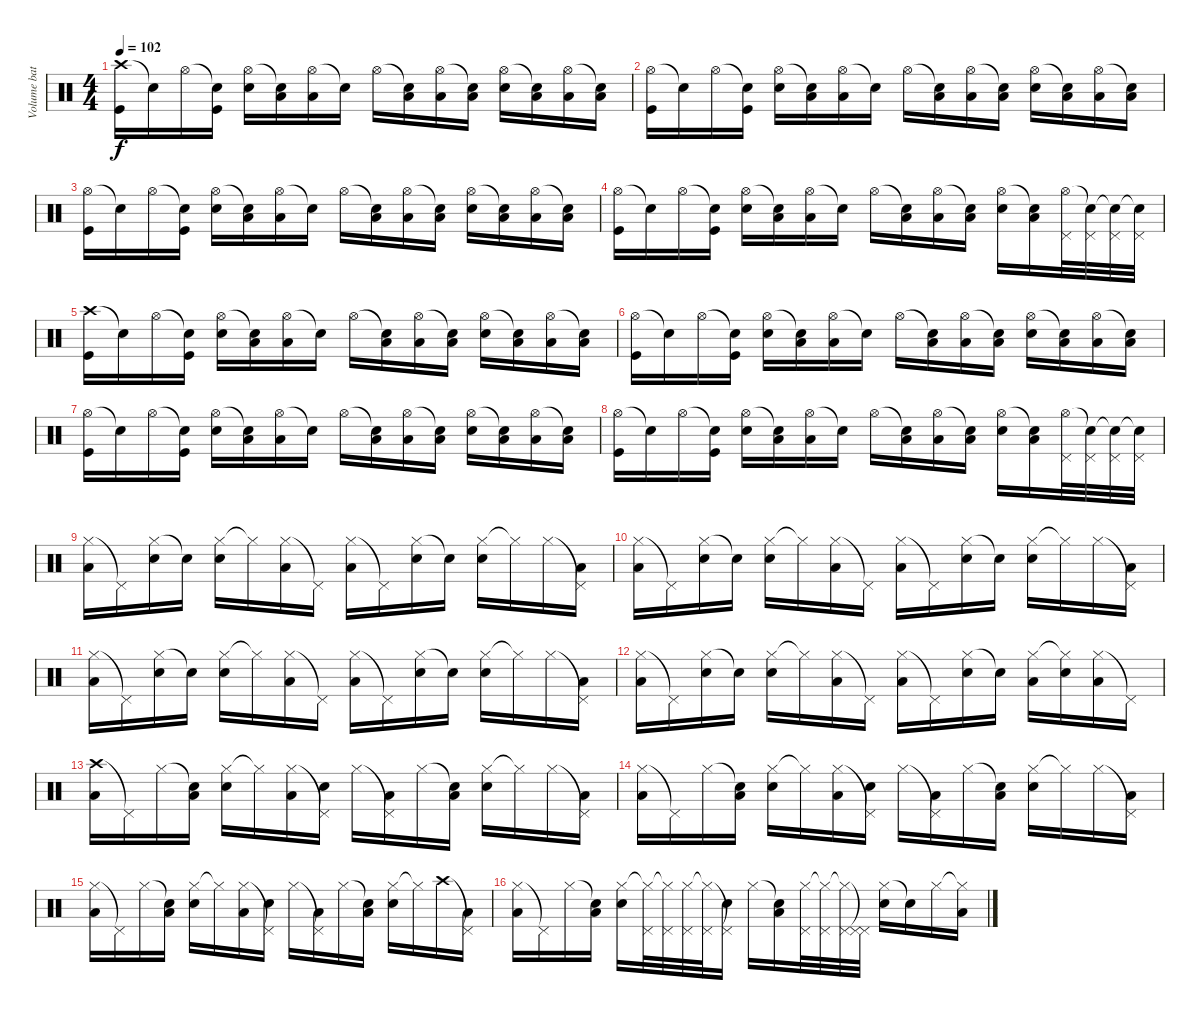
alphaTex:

\track ("Volume batera " "Volume bat") {instrument percussion}
\staff {score}
\articulation defaults
\ts (4 4)
\tempo 102
\clef neutral
\ks c
("Crash high (hit)" "Kick (hit)").16{dy f} "Snare (hit)"{t}.16 "Hi-Hat (open)".16 ("Snare (hit)"{t} "Kick (hit)").16 ("Hi-Hat (open)" "Snare (hit) 2").16 ("Snare (hit)"{t} "Low Tom (hit)").16 ("Hi-Hat (open)" "Low Tom (hit)").16 "Snare (hit)"{t}.16 "Hi-Hat (open)".16 ("Snare (hit)"{t} "Low Tom (hit)").16 ("Hi-Hat (open)" "Low Tom (hit)").16 ("Snare (hit)"{t} "Low Tom (hit)").16 ("Hi-Hat (open)" "Snare (hit) 2").16 ("Snare (hit)"{t} "Low Tom (hit)").16 ("Hi-Hat (open)" "Low Tom (hit)").16 ("Snare (hit)"{t} "Low Tom (hit)").16 |
("Hi-Hat (open)" "Kick (hit)").16 "Snare (hit)"{t}.16 "Hi-Hat (open)".16 ("Snare (hit)"{t} "Kick (hit)").16 ("Hi-Hat (open)" "Snare (hit) 2").16 ("Snare (hit)"{t} "Low Tom (hit)").16 ("Hi-Hat (open)" "Low Tom (hit)").16 "Snare (hit)"{t}.16 "Hi-Hat (open)".16 ("Snare (hit)"{t} "Low Tom (hit)").16 ("Hi-Hat (open)" "Low Tom (hit)").16 ("Snare (hit)"{t} "Low Tom (hit)").16 ("Hi-Hat (open)" "Snare (hit) 2").16 ("Snare (hit)"{t} "Low Tom (hit)").16 ("Hi-Hat (open)" "Low Tom (hit)").16 ("Snare (hit)"{t} "Low Tom (hit)").16 |
("Hi-Hat (open)" "Kick (hit)").16 "Snare (hit)"{t}.16 "Hi-Hat (open)".16 ("Snare (hit)"{t} "Kick (hit)").16 ("Hi-Hat (open)" "Snare (hit) 2").16 ("Snare (hit)"{t} "Low Tom (hit)").16 ("Hi-Hat (open)" "Low Tom (hit)").16 "Snare (hit)"{t}.16 "Hi-Hat (open)".16 ("Snare (hit)"{t} "Low Tom (hit)").16 ("Hi-Hat (open)" "Low Tom (hit)").16 ("Snare (hit)"{t} "Low Tom (hit)").16 ("Hi-Hat (open)" "Snare (hit) 2").16 ("Snare (hit)"{t} "Low Tom (hit)").16 ("Hi-Hat (open)" "Low Tom (hit)").16 ("Snare (hit)"{t} "Low Tom (hit)").16 |
("Hi-Hat (open)" "Kick (hit)").16 "Snare (hit)"{t}.16 "Hi-Hat (open)".16 ("Snare (hit)"{t} "Kick (hit)").16 ("Hi-Hat (open)" "Snare (hit) 2").16 ("Snare (hit)"{t} "Low Tom (hit)").16 ("Hi-Hat (open)" "Low Tom (hit)").16 "Snare (hit)"{t}.16 "Hi-Hat (open)".16 ("Snare (hit)"{t} "Low Tom (hit)").16 ("Hi-Hat (open)" "Low Tom (hit)").16 ("Snare (hit)"{t} "Low Tom (hit)").16 ("Hi-Hat (open)" "Snare (hit) 2").16 ("Snare (hit)"{t} "Low Tom (hit)").16 ("Hi-Hat (open)" "Pedal Hi-Hat (hit)").32 ("Snare (hit)"{t} "Pedal Hi-Hat (hit)").32 ("Snare (hit)"{t} "Pedal Hi-Hat (hit)").32 ("Snare (hit)"{t} "Pedal Hi-Hat (hit)").32 |
("Crash high (hit)" "Kick (hit)").16 "Snare (hit)"{t}.16 "Hi-Hat (open)".16 ("Snare (hit)"{t} "Kick (hit)").16 ("Hi-Hat (open)" "Snare (hit) 2").16 ("Snare (hit)"{t} "Low Tom (hit)").16 ("Hi-Hat (open)" "Low Tom (hit)").16 "Snare (hit)"{t}.16 "Hi-Hat (open)".16 ("Snare (hit)"{t} "Low Tom (hit)").16 ("Hi-Hat (open)" "Low Tom (hit)").16 ("Snare (hit)"{t} "Low Tom (hit)").16 ("Hi-Hat (open)" "Snare (hit) 2").16 ("Snare (hit)"{t} "Low Tom (hit)").16 ("Hi-Hat (open)" "Low Tom (hit)").16 ("Snare (hit)"{t} "Low Tom (hit)").16 |
("Hi-Hat (open)" "Kick (hit)").16 "Snare (hit)"{t}.16 "Hi-Hat (open)".16 ("Snare (hit)"{t} "Kick (hit)").16 ("Hi-Hat (open)" "Snare (hit) 2").16 ("Snare (hit)"{t} "Low Tom (hit)").16 ("Hi-Hat (open)" "Low Tom (hit)").16 "Snare (hit)"{t}.16 "Hi-Hat (open)".16 ("Snare (hit)"{t} "Low Tom (hit)").16 ("Hi-Hat (open)" "Low Tom (hit)").16 ("Snare (hit)"{t} "Low Tom (hit)").16 ("Hi-Hat (open)" "Snare (hit) 2").16 ("Snare (hit)"{t} "Low Tom (hit)").16 ("Hi-Hat (open)" "Low Tom (hit)").16 ("Snare (hit)"{t} "Low Tom (hit)").16 |
("Hi-Hat (open)" "Kick (hit)").16 "Snare (hit)"{t}.16 "Hi-Hat (open)".16 ("Snare (hit)"{t} "Kick (hit)").16 ("Hi-Hat (open)" "Snare (hit) 2").16 ("Snare (hit)"{t} "Low Tom (hit)").16 ("Hi-Hat (open)" "Low Tom (hit)").16 "Snare (hit)"{t}.16 "Hi-Hat (open)".16 ("Snare (hit)"{t} "Low Tom (hit)").16 ("Hi-Hat (open)" "Low Tom (hit)").16 ("Snare (hit)"{t} "Low Tom (hit)").16 ("Hi-Hat (open)" "Snare (hit) 2").16 ("Snare (hit)"{t} "Low Tom (hit)").16 ("Hi-Hat (open)" "Low Tom (hit)").16 ("Snare (hit)"{t} "Low Tom (hit)").16 |
("Hi-Hat (open)" "Kick (hit)").16 "Snare (hit)"{t}.16 "Hi-Hat (open)".16 ("Snare (hit)"{t} "Kick (hit)").16 ("Hi-Hat (open)" "Snare (hit) 2").16 ("Snare (hit)"{t} "Low Tom (hit)").16 ("Hi-Hat (open)" "Low Tom (hit)").16 "Snare (hit)"{t}.16 "Hi-Hat (open)".16 ("Snare (hit)"{t} "Low Tom (hit)").16 ("Hi-Hat (open)" "Low Tom (hit)").16 ("Snare (hit)"{t} "Low Tom (hit)").16 ("Hi-Hat (open)" "Snare (hit) 2").16 ("Snare (hit)"{t} "Low Tom (hit)").16 ("Hi-Hat (open)" "Pedal Hi-Hat (hit)").32 ("Snare (hit)"{t} "Pedal Hi-Hat (hit)").32 ("Snare (hit)"{t} "Pedal Hi-Hat (hit)").32 ("Snare (hit)"{t} "Pedal Hi-Hat (hit)").32 |
("Hi-Hat (closed)" "Low Tom (hit)").16 "Pedal Hi-Hat (hit)"{t}.16 ("Hi-Hat (closed)" "Snare (hit) 2").16 "Snare (hit)"{t}.16 ("Hi-Hat (closed)" "Snare (hit) 2").16 "Hi-Hat (closed)"{t}.16 ("Hi-Hat (closed)" "Low Tom (hit)").16 "Pedal Hi-Hat (hit)"{t}.16 ("Hi-Hat (closed)" "Low Tom (hit)").16 "Pedal Hi-Hat (hit)"{t}.16 ("Hi-Hat (closed)" "Snare (hit) 2").16 "Snare (hit)"{t}.16 ("Hi-Hat (closed)" "Snare (hit) 2").16 "Hi-Hat (closed)"{t}.16 "Hi-Hat (closed)".16 ("Pedal Hi-Hat (hit)"{t} "Low Tom (hit)").16 |
("Hi-Hat (closed)" "Low Tom (hit)").16 "Pedal Hi-Hat (hit)"{t}.16 ("Hi-Hat (closed)" "Snare (hit) 2").16 "Snare (hit)"{t}.16 ("Hi-Hat (closed)" "Snare (hit) 2").16 "Hi-Hat (closed)"{t}.16 ("Hi-Hat (closed)" "Low Tom (hit)").16 "Pedal Hi-Hat (hit)"{t}.16 ("Hi-Hat (closed)" "Low Tom (hit)").16 "Pedal Hi-Hat (hit)"{t}.16 ("Hi-Hat (closed)" "Snare (hit) 2").16 "Snare (hit)"{t}.16 ("Hi-Hat (closed)" "Snare (hit) 2").16 "Hi-Hat (closed)"{t}.16 "Hi-Hat (closed)".16 ("Pedal Hi-Hat (hit)"{t} "Low Tom (hit)").16 |
("Hi-Hat (closed)" "Low Tom (hit)").16 "Pedal Hi-Hat (hit)"{t}.16 ("Hi-Hat (closed)" "Snare (hit) 2").16 "Snare (hit)"{t}.16 ("Hi-Hat (closed)" "Snare (hit) 2").16 "Hi-Hat (closed)"{t}.16 ("Hi-Hat (closed)" "Low Tom (hit)").16 "Pedal Hi-Hat (hit)"{t}.16 ("Hi-Hat (closed)" "Low Tom (hit)").16 "Pedal Hi-Hat (hit)"{t}.16 ("Hi-Hat (closed)" "Snare (hit) 2").16 "Snare (hit)"{t}.16 ("Hi-Hat (closed)" "Snare (hit) 2").16 "Hi-Hat (closed)"{t}.16 "Hi-Hat (closed)".16 ("Pedal Hi-Hat (hit)"{t} "Low Tom (hit)").16 |
("Hi-Hat (closed)" "Low Tom (hit)").16 "Pedal Hi-Hat (hit)"{t}.16 ("Hi-Hat (closed)" "Snare (hit) 2").16 "Snare (hit)"{t}.16 ("Hi-Hat (closed)" "Snare (hit) 2").16 "Hi-Hat (closed)"{t}.16 ("Hi-Hat (closed)" "Low Tom (hit)").16 "Pedal Hi-Hat (hit)"{t}.16 ("Hi-Hat (closed)" "Low Tom (hit)").16 "Pedal Hi-Hat (hit)"{t}.16 ("Hi-Hat (closed)" "Snare (hit) 2").16 "Snare (hit)"{t}.16 ("Hi-Hat (closed)" "Low Tom (hit)").16 ("Hi-Hat (closed)"{t} "Snare (hit) 2").16 ("Hi-Hat (closed)" "Low Tom (hit)").16 "Pedal Hi-Hat (hit)"{t}.16 |
("Crash high (hit)" "Low Tom (hit)").16 "Pedal Hi-Hat (hit)"{t}.16 "Hi-Hat (closed)".16 ("Snare (hit)"{t} "Low Tom (hit)").16 ("Hi-Hat (closed)" "Snare (hit) 2").16 "Hi-Hat (closed)"{t}.16 ("Hi-Hat (closed)" "Low Tom (hit)").16 ("Pedal Hi-Hat (hit)"{t} "Snare (hit) 2").16 "Hi-Hat (closed)".16 ("Pedal Hi-Hat (hit)"{t} "Low Tom (hit)").16 "Hi-Hat (closed)".16 ("Snare (hit)"{t} "Low Tom (hit)").16 ("Hi-Hat (closed)" "Snare (hit) 2").16 "Hi-Hat (closed)"{t}.16 "Hi-Hat (closed)".16 ("Pedal Hi-Hat (hit)"{t} "Low Tom (hit)").16 |
("Hi-Hat (closed)" "Low Tom (hit)").16 "Pedal Hi-Hat (hit)"{t}.16 "Hi-Hat (closed)".16 ("Snare (hit)"{t} "Low Tom (hit)").16 ("Hi-Hat (closed)" "Snare (hit) 2").16 "Hi-Hat (closed)"{t}.16 ("Hi-Hat (closed)" "Low Tom (hit)").16 ("Pedal Hi-Hat (hit)"{t} "Snare (hit) 2").16 "Hi-Hat (closed)".16 ("Pedal Hi-Hat (hit)"{t} "Low Tom (hit)").16 "Hi-Hat (closed)".16 ("Snare (hit)"{t} "Low Tom (hit)").16 ("Hi-Hat (closed)" "Snare (hit) 2").16 "Hi-Hat (closed)"{t}.16 "Hi-Hat (closed)".16 ("Pedal Hi-Hat (hit)"{t} "Low Tom (hit)").16 |
("Hi-Hat (closed)" "Low Tom (hit)").16 "Pedal Hi-Hat (hit)"{t}.16 "Hi-Hat (closed)".16 ("Snare (hit)"{t} "Low Tom (hit)").16 ("Hi-Hat (closed)" "Snare (hit) 2").16 "Hi-Hat (closed)"{t}.16 ("Hi-Hat (closed)" "Low Tom (hit)").16 ("Pedal Hi-Hat (hit)"{t} "Snare (hit) 2").16 "Hi-Hat (closed)".16 ("Pedal Hi-Hat (hit)"{t} "Low Tom (hit)").16 "Hi-Hat (closed)".16 ("Snare (hit)"{t} "Low Tom (hit)").16 ("Hi-Hat (closed)" "Snare (hit) 2").16 "Hi-Hat (closed)"{t}.16 "Crash high (hit)".16 ("Pedal Hi-Hat (hit)"{t} "Low Tom (hit)").16 |
("Hi-Hat (closed)" "Low Tom (hit)").16 "Pedal Hi-Hat (hit)"{t}.16 "Hi-Hat (closed)".16 ("Snare (hit)"{t} "Low Tom (hit)").16 ("Hi-Hat (closed)" "Snare (hit) 2").16 ("Hi-Hat (closed)"{t} "Pedal Hi-Hat (hit)").32 ("Hi-Hat (closed)"{t} "Pedal Hi-Hat (hit)").32 ("Hi-Hat (closed)" "Pedal Hi-Hat (hit)").32 ("Hi-Hat (closed)"{t} "Pedal Hi-Hat (hit)").32 ("Pedal Hi-Hat (hit)"{t} "Snare (hit) 2").16 "Hi-Hat (closed)".16 ("Snare (hit)"{t} "Low Tom (hit)").16 ("Hi-Hat (closed)" "Pedal Hi-Hat (hit)").32 ("Hi-Hat (closed)"{t} "Pedal Hi-Hat (hit)").32 ("Hi-Hat (closed)"{t} "Pedal Hi-Hat (hit)").32 ("Pedal Hi-Hat (hit)"{t} "Pedal Hi-Hat (hit)").32 ("Hi-Hat (closed)" "Snare (hit) 2").16 "Snare (hit)"{t}.16 "Hi-Hat (closed)".16 ("Hi-Hat (closed)"{t} "Low Tom (hit)").16
